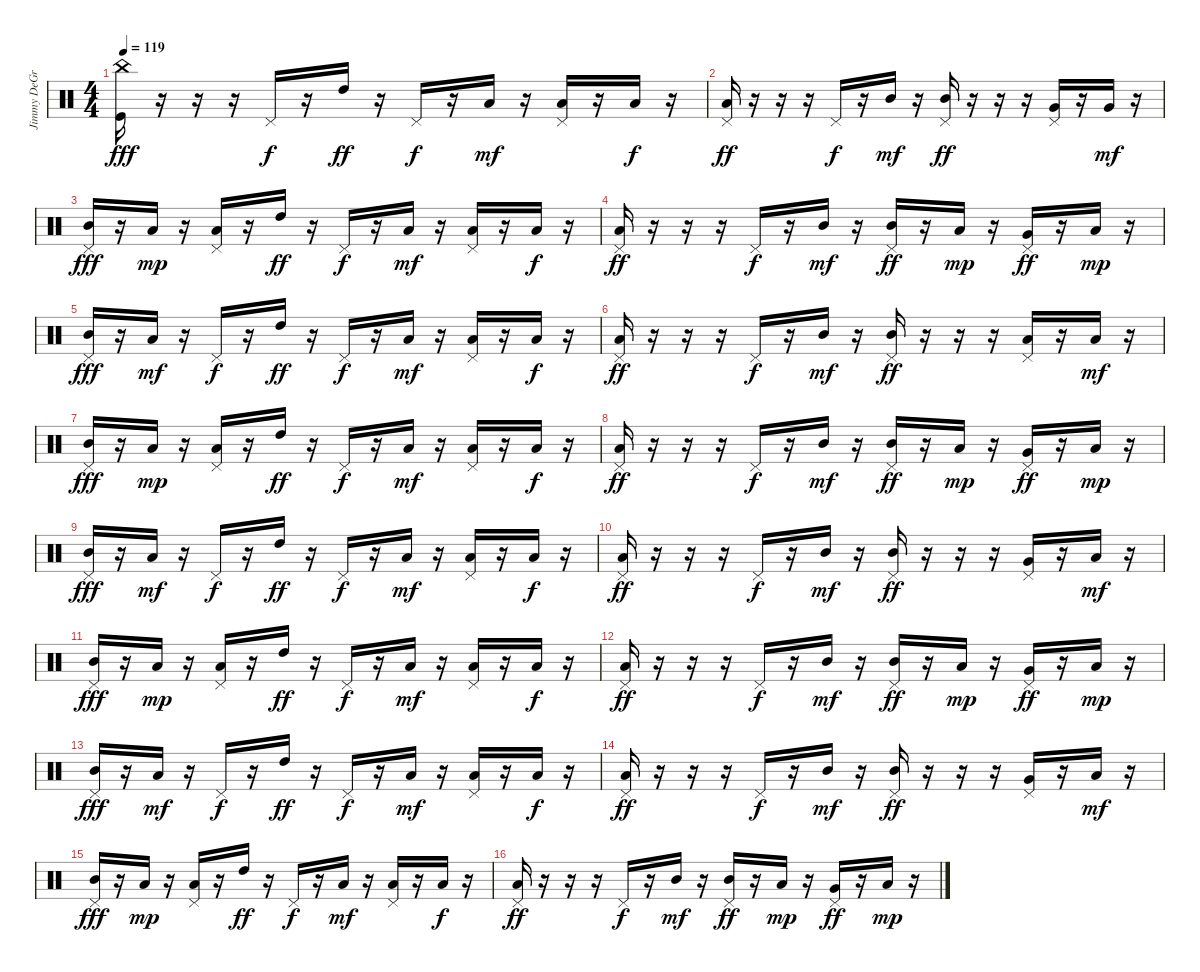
\track ("Jimmy DeGrasso" "Jimmy DeGr") {instrument percussion}
\staff {score}
\articulation defaults
\ts (4 4)
\tempo 119
\clef neutral
\ks c
("Kick (hit)" "China (hit)").16{dy fff} r.16 r.16 r.16 "Pedal Hi-Hat (hit)".16{dy f} r.16 "High Tom (hit)".16{dy ff} r.16 "Pedal Hi-Hat (hit)".16{dy f} r.16 "Low Floor Tom (hit)".16{dy mf} r.16 ("Low Floor Tom (hit)" "Pedal Hi-Hat (hit)").16 r.16 "Low Floor Tom (hit)".16{dy f} r.16 |
("Low Floor Tom (hit)" "Pedal Hi-Hat (hit)").16{dy ff} r.16 r.16 r.16 "Pedal Hi-Hat (hit)".16{dy f} r.16 "Mid Tom (hit)".16{dy mf} r.16 ("Mid Tom (hit)" "Pedal Hi-Hat (hit)").16{dy ff} r.16 r.16 r.16 ("Very Low Tom (hit)" "Pedal Hi-Hat (hit)").16 r.16 "Very Low Tom (hit)".16{dy mf} r.16 |
("Mid Tom (hit)" "Pedal Hi-Hat (hit)").16{dy fff} r.16 "Low Floor Tom (hit)".16{dy mp} r.16 ("Low Floor Tom (hit)" "Pedal Hi-Hat (hit)").16 r.16 "High Tom (hit)".16{dy ff} r.16 "Pedal Hi-Hat (hit)".16{dy f} r.16 "Low Floor Tom (hit)".16{dy mf} r.16 ("Low Floor Tom (hit)" "Pedal Hi-Hat (hit)").16 r.16 "Low Floor Tom (hit)".16{dy f} r.16 |
("Low Floor Tom (hit)" "Pedal Hi-Hat (hit)").16{dy ff} r.16 r.16 r.16 "Pedal Hi-Hat (hit)".16{dy f} r.16 "Mid Tom (hit)".16{dy mf} r.16 ("Mid Tom (hit)" "Pedal Hi-Hat (hit)").16{dy ff} r.16 "Low Floor Tom (hit)".16{dy mp} r.16 ("Very Low Tom (hit)" "Pedal Hi-Hat (hit)").16{dy ff} r.16 "Low Floor Tom (hit)".16{dy mp} r.16 |
("Mid Tom (hit)" "Pedal Hi-Hat (hit)").16{dy fff} r.16 "Low Floor Tom (hit)".16{dy mf} r.16 "Pedal Hi-Hat (hit)".16{dy f} r.16 "High Tom (hit)".16{dy ff} r.16 "Pedal Hi-Hat (hit)".16{dy f} r.16 "Low Floor Tom (hit)".16{dy mf} r.16 ("Low Floor Tom (hit)" "Pedal Hi-Hat (hit)").16 r.16 "Low Floor Tom (hit)".16{dy f} r.16 |
("Low Floor Tom (hit)" "Pedal Hi-Hat (hit)").16{dy ff} r.16 r.16 r.16 "Pedal Hi-Hat (hit)".16{dy f} r.16 "Mid Tom (hit)".16{dy mf} r.16 ("Mid Tom (hit)" "Pedal Hi-Hat (hit)").16{dy ff} r.16 r.16 r.16 ("Low Tom (hit)" "Pedal Hi-Hat (hit)").16 r.16 "Low Floor Tom (hit)".16{dy mf} r.16 |
("Mid Tom (hit)" "Pedal Hi-Hat (hit)").16{dy fff} r.16 "Low Floor Tom (hit)".16{dy mp} r.16 ("Low Floor Tom (hit)" "Pedal Hi-Hat (hit)").16 r.16 "High Tom (hit)".16{dy ff} r.16 "Pedal Hi-Hat (hit)".16{dy f} r.16 "Low Floor Tom (hit)".16{dy mf} r.16 ("Low Floor Tom (hit)" "Pedal Hi-Hat (hit)").16 r.16 "Low Floor Tom (hit)".16{dy f} r.16 |
("Low Floor Tom (hit)" "Pedal Hi-Hat (hit)").16{dy ff} r.16 r.16 r.16 "Pedal Hi-Hat (hit)".16{dy f} r.16 "Mid Tom (hit)".16{dy mf} r.16 ("Mid Tom (hit)" "Pedal Hi-Hat (hit)").16{dy ff} r.16 "Low Floor Tom (hit)".16{dy mp} r.16 ("Very Low Tom (hit)" "Pedal Hi-Hat (hit)").16{dy ff} r.16 "Low Floor Tom (hit)".16{dy mp} r.16 |
("Mid Tom (hit)" "Pedal Hi-Hat (hit)").16{dy fff} r.16 "Low Floor Tom (hit)".16{dy mf} r.16 "Pedal Hi-Hat (hit)".16{dy f} r.16 "High Tom (hit)".16{dy ff} r.16 "Pedal Hi-Hat (hit)".16{dy f} r.16 "Low Floor Tom (hit)".16{dy mf} r.16 ("Low Floor Tom (hit)" "Pedal Hi-Hat (hit)").16 r.16 "Low Floor Tom (hit)".16{dy f} r.16 |
("Low Floor Tom (hit)" "Pedal Hi-Hat (hit)").16{dy ff} r.16 r.16 r.16 "Pedal Hi-Hat (hit)".16{dy f} r.16 "Mid Tom (hit)".16{dy mf} r.16 ("Mid Tom (hit)" "Pedal Hi-Hat (hit)").16{dy ff} r.16 r.16 r.16 ("Very Low Tom (hit)" "Pedal Hi-Hat (hit)").16 r.16 "Low Floor Tom (hit)".16{dy mf} r.16 |
("Mid Tom (hit)" "Pedal Hi-Hat (hit)").16{dy fff} r.16 "Low Floor Tom (hit)".16{dy mp} r.16 ("Low Floor Tom (hit)" "Pedal Hi-Hat (hit)").16 r.16 "High Tom (hit)".16{dy ff} r.16 "Pedal Hi-Hat (hit)".16{dy f} r.16 "Low Floor Tom (hit)".16{dy mf} r.16 ("Low Floor Tom (hit)" "Pedal Hi-Hat (hit)").16 r.16 "Low Floor Tom (hit)".16{dy f} r.16 |
("Low Floor Tom (hit)" "Pedal Hi-Hat (hit)").16{dy ff} r.16 r.16 r.16 "Pedal Hi-Hat (hit)".16{dy f} r.16 "Mid Tom (hit)".16{dy mf} r.16 ("Mid Tom (hit)" "Pedal Hi-Hat (hit)").16{dy ff} r.16 "Low Floor Tom (hit)".16{dy mp} r.16 ("Very Low Tom (hit)" "Pedal Hi-Hat (hit)").16{dy ff} r.16 "Low Floor Tom (hit)".16{dy mp} r.16 |
("Mid Tom (hit)" "Pedal Hi-Hat (hit)").16{dy fff} r.16 "Low Floor Tom (hit)".16{dy mf} r.16 "Pedal Hi-Hat (hit)".16{dy f} r.16 "High Tom (hit)".16{dy ff} r.16 "Pedal Hi-Hat (hit)".16{dy f} r.16 "Low Floor Tom (hit)".16{dy mf} r.16 ("Low Floor Tom (hit)" "Pedal Hi-Hat (hit)").16 r.16 "Low Floor Tom (hit)".16{dy f} r.16 |
("Low Floor Tom (hit)" "Pedal Hi-Hat (hit)").16{dy ff} r.16 r.16 r.16 "Pedal Hi-Hat (hit)".16{dy f} r.16 "Mid Tom (hit)".16{dy mf} r.16 ("Mid Tom (hit)" "Pedal Hi-Hat (hit)").16{dy ff} r.16 r.16 r.16 ("Very Low Tom (hit)" "Pedal Hi-Hat (hit)").16 r.16 "Low Floor Tom (hit)".16{dy mf} r.16 |
("Mid Tom (hit)" "Pedal Hi-Hat (hit)").16{dy fff} r.16 "Low Floor Tom (hit)".16{dy mp} r.16 ("Low Floor Tom (hit)" "Pedal Hi-Hat (hit)").16 r.16 "High Tom (hit)".16{dy ff} r.16 "Pedal Hi-Hat (hit)".16{dy f} r.16 "Low Floor Tom (hit)".16{dy mf} r.16 ("Low Floor Tom (hit)" "Pedal Hi-Hat (hit)").16 r.16 "Low Floor Tom (hit)".16{dy f} r.16 |
("Low Floor Tom (hit)" "Pedal Hi-Hat (hit)").16{dy ff} r.16 r.16 r.16 "Pedal Hi-Hat (hit)".16{dy f} r.16 "Mid Tom (hit)".16{dy mf} r.16 ("Mid Tom (hit)" "Pedal Hi-Hat (hit)").16{dy ff} r.16 "Low Floor Tom (hit)".16{dy mp} r.16 ("Very Low Tom (hit)" "Pedal Hi-Hat (hit)").16{dy ff} r.16 "Low Floor Tom (hit)".16{dy mp} r.16
